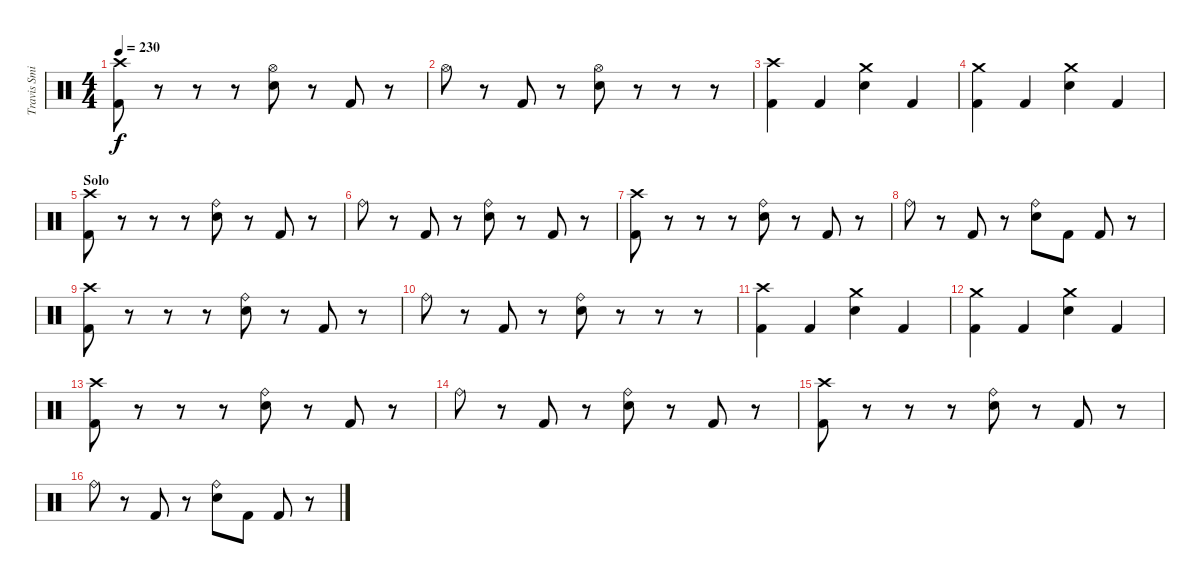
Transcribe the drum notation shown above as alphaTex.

\track ("Travis Smith" "Travis Smi") {instrument percussion}
\staff {score}
\articulation defaults
\ts (4 4)
\tempo 230
\clef neutral
\ks c
("Crash high (hit)" "Kick (hit) 2").8{dy f} r.8 r.8 r.8 ("Hi-Hat (open)" "Electric Snare (hit)").8 r.8 "Kick (hit) 2".8 r.8 |
"Hi-Hat (open)".8 r.8 "Kick (hit) 2".8 r.8 ("Hi-Hat (open)" "Electric Snare (hit)").8 r.8 r.8 r.8 |
("Crash high (hit)" "Kick (hit) 2").4 "Kick (hit) 2".4 ("Crash medium (hit)" "Electric Snare (hit)").4 "Kick (hit) 2".4 |
("Crash medium (hit)" "Kick (hit) 2").4 "Kick (hit) 2".4 ("Crash medium (hit)" "Electric Snare (hit)").4 "Kick (hit) 2".4 |
\section ("" "Solo")
("Crash high (hit)" "Kick (hit) 2").8 r.8 r.8 r.8 ("Ride (bell)" "Electric Snare (hit)").8 r.8 "Kick (hit) 2".8 r.8 |
"Ride (bell)".8 r.8 "Kick (hit) 2".8 r.8 ("Ride (bell)" "Electric Snare (hit)").8 r.8 "Kick (hit) 2".8 r.8 |
("Crash high (hit)" "Kick (hit) 2").8 r.8 r.8 r.8 ("Ride (bell)" "Electric Snare (hit)").8 r.8 "Kick (hit) 2".8 r.8 |
"Ride (bell)".8 r.8 "Kick (hit) 2".8 r.8 ("Ride (bell)" "Electric Snare (hit)").8 "Kick (hit) 2".8 "Kick (hit) 2".8 r.8 |
("Crash high (hit)" "Kick (hit) 2").8 r.8 r.8 r.8 ("Ride (bell)" "Electric Snare (hit)").8 r.8 "Kick (hit) 2".8 r.8 |
"Ride (bell)".8 r.8 "Kick (hit) 2".8 r.8 ("Ride (bell)" "Electric Snare (hit)").8 r.8 r.8 r.8 |
("Crash high (hit)" "Kick (hit) 2").4 "Kick (hit) 2".4 ("Crash medium (hit)" "Electric Snare (hit)").4 "Kick (hit) 2".4 |
("Crash medium (hit)" "Kick (hit) 2").4 "Kick (hit) 2".4 ("Crash medium (hit)" "Electric Snare (hit)").4 "Kick (hit) 2".4 |
("Crash high (hit)" "Kick (hit) 2").8 r.8 r.8 r.8 ("Ride (bell)" "Electric Snare (hit)").8 r.8 "Kick (hit) 2".8 r.8 |
"Ride (bell)".8 r.8 "Kick (hit) 2".8 r.8 ("Ride (bell)" "Electric Snare (hit)").8 r.8 "Kick (hit) 2".8 r.8 |
("Crash high (hit)" "Kick (hit) 2").8 r.8 r.8 r.8 ("Ride (bell)" "Electric Snare (hit)").8 r.8 "Kick (hit) 2".8 r.8 |
"Ride (bell)".8 r.8 "Kick (hit) 2".8 r.8 ("Ride (bell)" "Electric Snare (hit)").8 "Kick (hit) 2".8 "Kick (hit) 2".8 r.8
